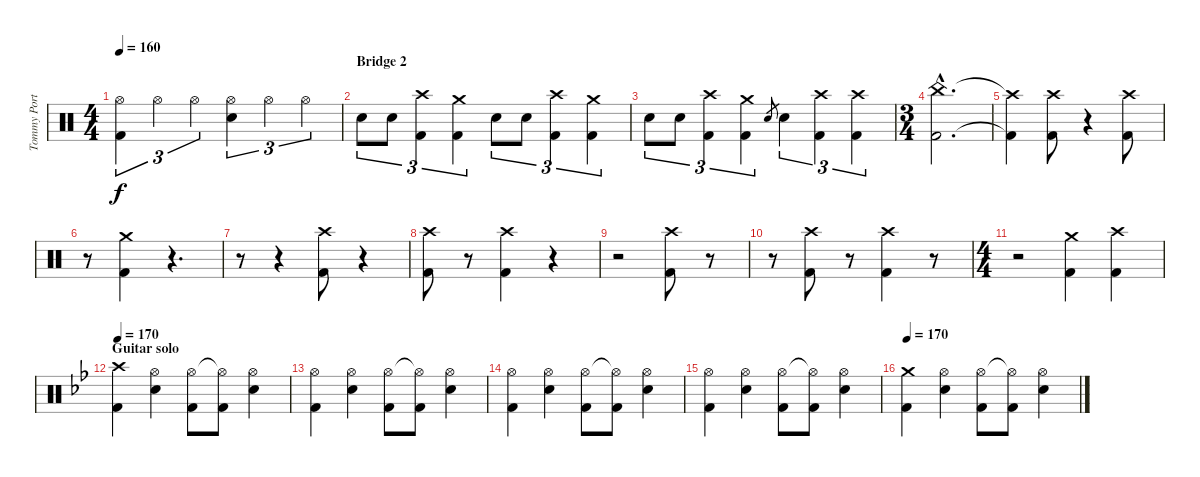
\track ("Tommy Portimo" "Tommy Port") {instrument percussion}
\staff {score}
\articulation defaults
\ts (4 4)
\tempo 160
\clef neutral
\ks c
("Hi-Hat (open)" "Kick (hit) 2").4{tu (3 2) dy f} "Hi-Hat (open)".4{tu (3 2)} "Hi-Hat (open)".4{tu (3 2)} ("Hi-Hat (open)" "Snare (hit) 2").4{tu (3 2)} "Hi-Hat (open)".4{tu (3 2)} "Hi-Hat (open)".4{tu (3 2)} |
\section ("" "Bridge 2")
"Snare (hit) 2".8{tu (3 2)} "Snare (hit) 2".8{tu (3 2)} ("Crash high (hit)" "Kick (hit) 2").4{tu (3 2)} ("Crash medium (hit)" "Kick (hit) 2").4{tu (3 2)} "Snare (hit) 2".8{tu (3 2)} "Snare (hit) 2".8{tu (3 2)} ("Crash high (hit)" "Kick (hit) 2").4{tu (3 2)} ("Crash medium (hit)" "Kick (hit) 2").4{tu (3 2)} |
"Snare (hit) 2".8{tu (3 2)} "Snare (hit) 2".8{tu (3 2)} ("Crash high (hit)" "Kick (hit) 2").4{tu (3 2)} ("Crash medium (hit)" "Kick (hit) 2").4{tu (3 2)} "Snare (hit) 2".8{gr} "Snare (hit) 2".4{tu (3 2)} ("Crash high (hit)" "Kick (hit) 2").4{tu (3 2)} ("Crash high (hit)" "Kick (hit) 2").4{tu (3 2)} |
\ts (3 4)
("China (hit)"{hac} "Kick (hit) 2"{hac}).2{d} |
("Crash high (hit)"{t} "Kick (hit) 2"{t}).4 ("Crash high (hit)" "Kick (hit) 2").8 r.4 ("Crash high (hit)" "Kick (hit) 2").8 |
r.8 ("Crash medium (hit)" "Kick (hit) 2").4 r.4{d} |
r.8 r.4 ("Crash high (hit)" "Kick (hit) 2").8 r.4 |
("Crash high (hit)" "Kick (hit) 2").8 r.8 ("Crash high (hit)" "Kick (hit) 2").4 r.4 |
r.2 ("Crash high (hit)" "Kick (hit) 2").8 r.8 |
r.8 ("Crash high (hit)" "Kick (hit) 2").8 r.8 ("Crash high (hit)" "Kick (hit) 2").4 r.8 |
\ts (4 4)
r.2 ("Crash medium (hit)" "Kick (hit) 2").4 ("Crash high (hit)" "Kick (hit) 2").4 |
\section ("" "Guitar solo ")
\tempo 170
\ks gminor
("Crash high (hit)" "Kick (hit) 2").4 ("Hi-Hat (open)" "Snare (hit) 2").4 ("Hi-Hat (open)" "Kick (hit) 2").8 ("Hi-Hat (open)"{t} "Kick (hit) 2").8 ("Hi-Hat (open)" "Snare (hit) 2").4 |
("Hi-Hat (open)" "Kick (hit) 2").4 ("Hi-Hat (open)" "Snare (hit) 2").4 ("Hi-Hat (open)" "Kick (hit) 2").8 ("Hi-Hat (open)"{t} "Kick (hit) 2").8 ("Hi-Hat (open)" "Snare (hit) 2").4 |
("Hi-Hat (open)" "Kick (hit) 2").4 ("Hi-Hat (open)" "Snare (hit) 2").4 ("Hi-Hat (open)" "Kick (hit) 2").8 ("Hi-Hat (open)"{t} "Kick (hit) 2").8 ("Hi-Hat (open)" "Snare (hit) 2").4 |
("Hi-Hat (open)" "Kick (hit) 2").4 ("Hi-Hat (open)" "Snare (hit) 2").4 ("Hi-Hat (open)" "Kick (hit) 2").8 ("Hi-Hat (open)"{t} "Kick (hit) 2").8 ("Hi-Hat (open)" "Snare (hit) 2").4 |
\tempo 170
("Crash medium (hit)" "Kick (hit) 2").4 ("Hi-Hat (open)" "Snare (hit) 2").4 ("Hi-Hat (open)" "Kick (hit) 2").8 ("Hi-Hat (open)"{t} "Kick (hit) 2").8 ("Hi-Hat (open)" "Snare (hit) 2").4
